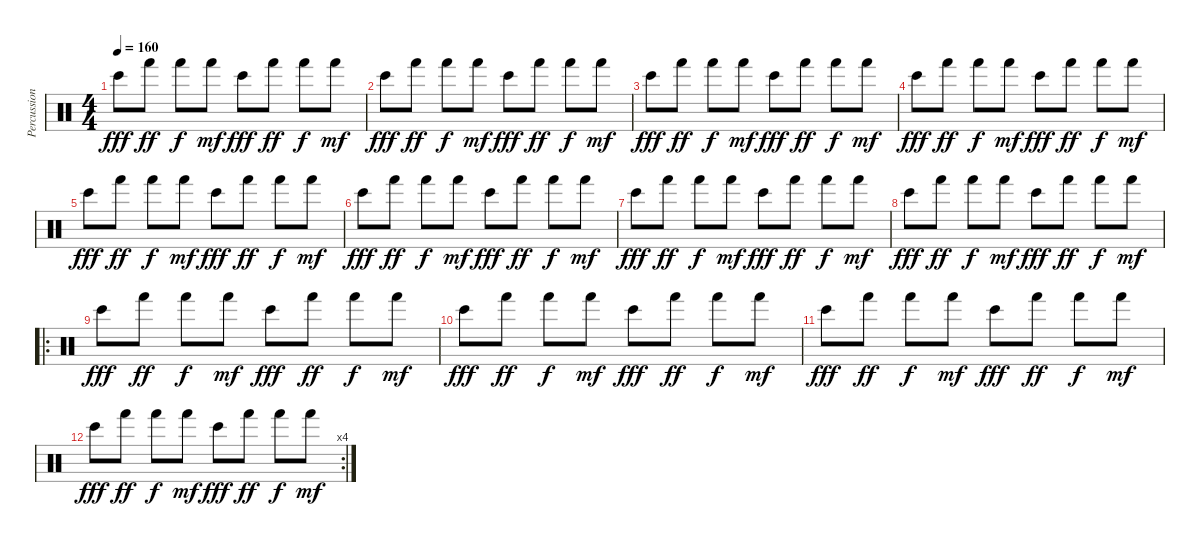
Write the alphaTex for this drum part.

\track ("Percussion" "Percussion") {instrument percussion}
\staff {score}
\articulation defaults
\ts (4 4)
\tempo 160
\clef neutral
\ks c "Bongo High (hit)".8{dy fff} "Hand (hit)".8{dy ff} "Hand (hit)".8{dy f} "Hand (hit)".8{dy mf} "Bongo High (hit)".8{dy fff} "Hand (hit)".8{dy ff} "Hand (hit)".8{dy f} "Hand (hit)".8{dy mf}
|
"Bongo High (hit)".8{dy fff} "Hand (hit)".8{dy ff} "Hand (hit)".8{dy f} "Hand (hit)".8{dy mf} "Bongo High (hit)".8{dy fff} "Hand (hit)".8{dy ff} "Hand (hit)".8{dy f} "Hand (hit)".8{dy mf} |
"Bongo High (hit)".8{dy fff} "Hand (hit)".8{dy ff} "Hand (hit)".8{dy f} "Hand (hit)".8{dy mf} "Bongo High (hit)".8{dy fff} "Hand (hit)".8{dy ff} "Hand (hit)".8{dy f} "Hand (hit)".8{dy mf} |
"Bongo High (hit)".8{dy fff} "Hand (hit)".8{dy ff} "Hand (hit)".8{dy f} "Hand (hit)".8{dy mf} "Bongo High (hit)".8{dy fff} "Hand (hit)".8{dy ff} "Hand (hit)".8{dy f} "Hand (hit)".8{dy mf} |
"Bongo High (hit)".8{dy fff} "Hand (hit)".8{dy ff} "Hand (hit)".8{dy f} "Hand (hit)".8{dy mf} "Bongo High (hit)".8{dy fff} "Hand (hit)".8{dy ff} "Hand (hit)".8{dy f} "Hand (hit)".8{dy mf} |
"Bongo High (hit)".8{dy fff} "Hand (hit)".8{dy ff} "Hand (hit)".8{dy f} "Hand (hit)".8{dy mf} "Bongo High (hit)".8{dy fff} "Hand (hit)".8{dy ff} "Hand (hit)".8{dy f} "Hand (hit)".8{dy mf} |
"Bongo High (hit)".8{dy fff} "Hand (hit)".8{dy ff} "Hand (hit)".8{dy f} "Hand (hit)".8{dy mf} "Bongo High (hit)".8{dy fff} "Hand (hit)".8{dy ff} "Hand (hit)".8{dy f} "Hand (hit)".8{dy mf} |
"Bongo High (hit)".8{dy fff} "Hand (hit)".8{dy ff} "Hand (hit)".8{dy f} "Hand (hit)".8{dy mf} "Bongo High (hit)".8{dy fff} "Hand (hit)".8{dy ff} "Hand (hit)".8{dy f} "Hand (hit)".8{dy mf} |
\ro "Bongo High (hit)".8{dy fff} "Hand (hit)".8{dy ff} "Hand (hit)".8{dy f} "Hand (hit)".8{dy mf} "Bongo High (hit)".8{dy fff} "Hand (hit)".8{dy ff} "Hand (hit)".8{dy f} "Hand (hit)".8{dy mf}
|
"Bongo High (hit)".8{dy fff} "Hand (hit)".8{dy ff} "Hand (hit)".8{dy f} "Hand (hit)".8{dy mf} "Bongo High (hit)".8{dy fff} "Hand (hit)".8{dy ff} "Hand (hit)".8{dy f} "Hand (hit)".8{dy mf} |
"Bongo High (hit)".8{dy fff} "Hand (hit)".8{dy ff} "Hand (hit)".8{dy f} "Hand (hit)".8{dy mf} "Bongo High (hit)".8{dy fff} "Hand (hit)".8{dy ff} "Hand (hit)".8{dy f} "Hand (hit)".8{dy mf} |
\rc 4 "Bongo High (hit)".8{dy fff} "Hand (hit)".8{dy ff} "Hand (hit)".8{dy f} "Hand (hit)".8{dy mf} "Bongo High (hit)".8{dy fff} "Hand (hit)".8{dy ff} "Hand (hit)".8{dy f} "Hand (hit)".8{dy mf}
